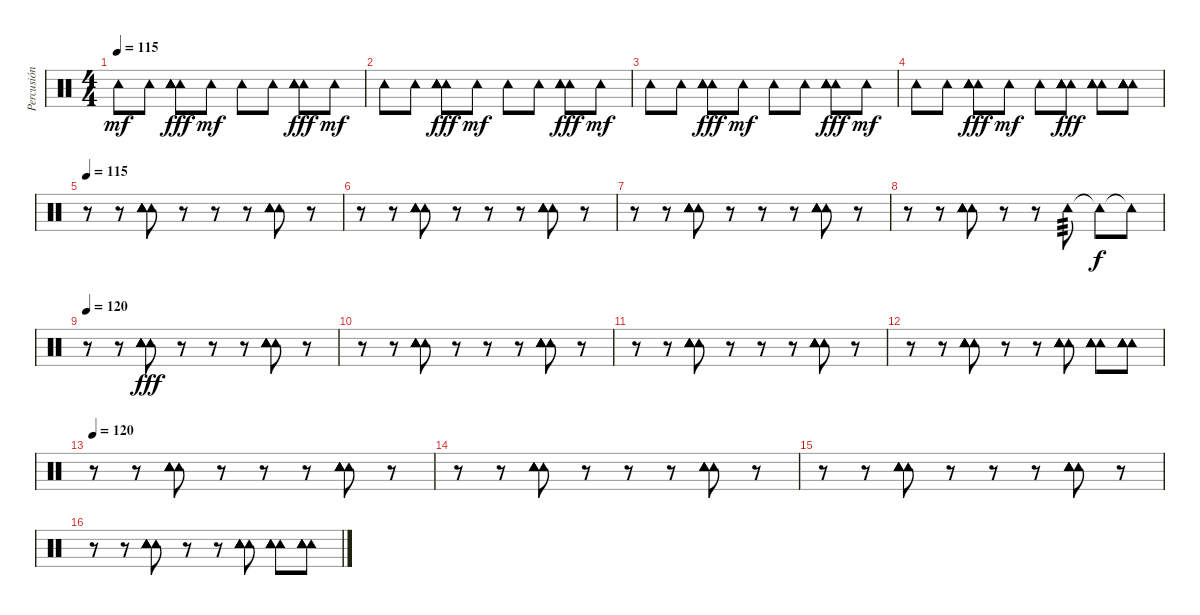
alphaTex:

\track ("Percusión " "Percusión ") {instrument percussion}
\staff {score}
\articulation defaults
\ts (4 4)
\tempo 115
\clef neutral
\ks c "Tambourine (hit)".8{dy mf} "Tambourine (hit)".8
("Tambourine (hit)" "Tambourine (hit)" "Tambourine (hit)" "Tambourine (hit)" "Tambourine (hit)" "Tambourine (hit)").8{dy fff} "Tambourine (hit)".8{dy mf} "Tambourine (hit)".8 "Tambourine (hit)".8 ("Tambourine (hit)" "Tambourine (hit)" "Tambourine (hit)" "Tambourine (hit)" "Tambourine (hit)" "Tambourine (hit)").8{dy fff} "Tambourine (hit)".8{dy mf} |
"Tambourine (hit)".8 "Tambourine (hit)".8 ("Tambourine (hit)" "Tambourine (hit)" "Tambourine (hit)" "Tambourine (hit)" "Tambourine (hit)" "Tambourine (hit)").8{dy fff} "Tambourine (hit)".8{dy mf} "Tambourine (hit)".8 "Tambourine (hit)".8 ("Tambourine (hit)" "Tambourine (hit)" "Tambourine (hit)" "Tambourine (hit)" "Tambourine (hit)" "Tambourine (hit)").8{dy fff} "Tambourine (hit)".8{dy mf} |
"Tambourine (hit)".8 "Tambourine (hit)".8 ("Tambourine (hit)" "Tambourine (hit)" "Tambourine (hit)" "Tambourine (hit)" "Tambourine (hit)" "Tambourine (hit)").8{dy fff} "Tambourine (hit)".8{dy mf} "Tambourine (hit)".8 "Tambourine (hit)".8 ("Tambourine (hit)" "Tambourine (hit)" "Tambourine (hit)" "Tambourine (hit)" "Tambourine (hit)" "Tambourine (hit)").8{dy fff} "Tambourine (hit)".8{dy mf} |
"Tambourine (hit)".8 "Tambourine (hit)".8 ("Tambourine (hit)" "Tambourine (hit)" "Tambourine (hit)" "Tambourine (hit)" "Tambourine (hit)" "Tambourine (hit)").8{dy fff} "Tambourine (hit)".8{dy mf} "Tambourine (hit)".8 ("Tambourine (hit)" "Tambourine (hit)" "Tambourine (hit)" "Tambourine (hit)" "Tambourine (hit)" "Tambourine (hit)").8{dy fff} ("Tambourine (hit)" "Tambourine (hit)" "Tambourine (hit)" "Tambourine (hit)" "Tambourine (hit)" "Tambourine (hit)").8 ("Tambourine (hit)" "Tambourine (hit)" "Tambourine (hit)" "Tambourine (hit)" "Tambourine (hit)" "Tambourine (hit)").8 |
\tempo 115
r.8 r.8 ("Tambourine (hit)" "Tambourine (hit)" "Tambourine (hit)" "Tambourine (hit)" "Tambourine (hit)" "Tambourine (hit)").8 r.8 r.8 r.8 ("Tambourine (hit)" "Tambourine (hit)" "Tambourine (hit)" "Tambourine (hit)" "Tambourine (hit)" "Tambourine (hit)").8 r.8 |
r.8 r.8 ("Tambourine (hit)" "Tambourine (hit)" "Tambourine (hit)" "Tambourine (hit)" "Tambourine (hit)" "Tambourine (hit)").8 r.8 r.8 r.8 ("Tambourine (hit)" "Tambourine (hit)" "Tambourine (hit)" "Tambourine (hit)" "Tambourine (hit)" "Tambourine (hit)").8 r.8 |
r.8 r.8 ("Tambourine (hit)" "Tambourine (hit)" "Tambourine (hit)" "Tambourine (hit)" "Tambourine (hit)" "Tambourine (hit)").8 r.8 r.8 r.8 ("Tambourine (hit)" "Tambourine (hit)" "Tambourine (hit)" "Tambourine (hit)" "Tambourine (hit)" "Tambourine (hit)").8 r.8 |
r.8 r.8 ("Tambourine (hit)" "Tambourine (hit)" "Tambourine (hit)" "Tambourine (hit)" "Tambourine (hit)" "Tambourine (hit)").8 r.8 r.8 "Tambourine (hit)".8{tp 3} "Tambourine (hit)"{t}.8{dy f} "Tambourine (hit)"{t}.8 |
\tempo 120
r.8 r.8 ("Tambourine (hit)" "Tambourine (hit)" "Tambourine (hit)" "Tambourine (hit)" "Tambourine (hit)" "Tambourine (hit)").8{dy fff} r.8 r.8 r.8 ("Tambourine (hit)" "Tambourine (hit)" "Tambourine (hit)" "Tambourine (hit)" "Tambourine (hit)" "Tambourine (hit)").8 r.8 |
r.8 r.8 ("Tambourine (hit)" "Tambourine (hit)" "Tambourine (hit)" "Tambourine (hit)" "Tambourine (hit)" "Tambourine (hit)").8 r.8 r.8 r.8 ("Tambourine (hit)" "Tambourine (hit)" "Tambourine (hit)" "Tambourine (hit)" "Tambourine (hit)" "Tambourine (hit)").8 r.8 |
r.8 r.8 ("Tambourine (hit)" "Tambourine (hit)" "Tambourine (hit)" "Tambourine (hit)" "Tambourine (hit)" "Tambourine (hit)").8 r.8 r.8 r.8 ("Tambourine (hit)" "Tambourine (hit)" "Tambourine (hit)" "Tambourine (hit)" "Tambourine (hit)" "Tambourine (hit)").8 r.8 |
r.8 r.8 ("Tambourine (hit)" "Tambourine (hit)" "Tambourine (hit)" "Tambourine (hit)" "Tambourine (hit)" "Tambourine (hit)").8 r.8 r.8 ("Tambourine (hit)" "Tambourine (hit)" "Tambourine (hit)" "Tambourine (hit)" "Tambourine (hit)" "Tambourine (hit)").8 ("Tambourine (hit)" "Tambourine (hit)" "Tambourine (hit)" "Tambourine (hit)" "Tambourine (hit)" "Tambourine (hit)").8 ("Tambourine (hit)" "Tambourine (hit)" "Tambourine (hit)" "Tambourine (hit)" "Tambourine (hit)" "Tambourine (hit)").8 |
\tempo 120
r.8 r.8 ("Tambourine (hit)" "Tambourine (hit)" "Tambourine (hit)" "Tambourine (hit)" "Tambourine (hit)" "Tambourine (hit)").8 r.8 r.8 r.8 ("Tambourine (hit)" "Tambourine (hit)" "Tambourine (hit)" "Tambourine (hit)" "Tambourine (hit)" "Tambourine (hit)").8 r.8 |
r.8 r.8 ("Tambourine (hit)" "Tambourine (hit)" "Tambourine (hit)" "Tambourine (hit)" "Tambourine (hit)" "Tambourine (hit)").8 r.8 r.8 r.8 ("Tambourine (hit)" "Tambourine (hit)" "Tambourine (hit)" "Tambourine (hit)" "Tambourine (hit)" "Tambourine (hit)").8 r.8 |
r.8 r.8 ("Tambourine (hit)" "Tambourine (hit)" "Tambourine (hit)" "Tambourine (hit)" "Tambourine (hit)" "Tambourine (hit)").8 r.8 r.8 r.8 ("Tambourine (hit)" "Tambourine (hit)" "Tambourine (hit)" "Tambourine (hit)" "Tambourine (hit)" "Tambourine (hit)").8 r.8 |
r.8 r.8 ("Tambourine (hit)" "Tambourine (hit)" "Tambourine (hit)" "Tambourine (hit)" "Tambourine (hit)" "Tambourine (hit)").8 r.8 r.8 ("Tambourine (hit)" "Tambourine (hit)" "Tambourine (hit)" "Tambourine (hit)" "Tambourine (hit)" "Tambourine (hit)").8 ("Tambourine (hit)" "Tambourine (hit)" "Tambourine (hit)" "Tambourine (hit)" "Tambourine (hit)" "Tambourine (hit)").8 ("Tambourine (hit)" "Tambourine (hit)" "Tambourine (hit)" "Tambourine (hit)" "Tambourine (hit)" "Tambourine (hit)").8
